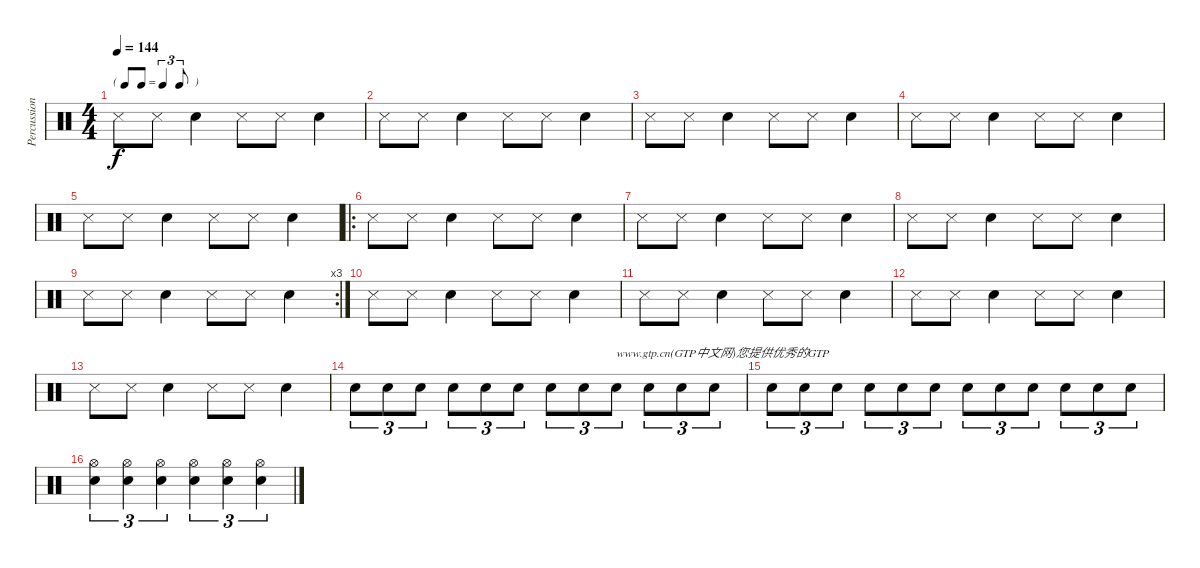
\track ("Percussions" "Percussion") {instrument percussion}
\staff {score}
\articulation defaults
\ts (4 4)
\tf triplet8th
\tempo 144
\clef neutral
\ks c "Snare (side stick) 3".8{dy f} "Snare (side stick) 3".8 "Snare (hit) 2".4 "Snare (side stick) 3".8 "Snare (side stick) 3".8 "Snare (hit) 2".4
|
"Snare (side stick) 3".8 "Snare (side stick) 3".8 "Snare (hit) 2".4 "Snare (side stick) 3".8 "Snare (side stick) 3".8 "Snare (hit) 2".4 |
"Snare (side stick) 3".8 "Snare (side stick) 3".8 "Snare (hit) 2".4 "Snare (side stick) 3".8 "Snare (side stick) 3".8 "Snare (hit) 2".4 |
"Snare (side stick) 3".8 "Snare (side stick) 3".8 "Snare (hit) 2".4 "Snare (side stick) 3".8 "Snare (side stick) 3".8 "Snare (hit) 2".4 |
"Snare (side stick) 3".8 "Snare (side stick) 3".8 "Snare (hit) 2".4 "Snare (side stick) 3".8 "Snare (side stick) 3".8 "Snare (hit) 2".4 |
\ro "Snare (side stick) 3".8 "Snare (side stick) 3".8 "Snare (hit) 2".4 "Snare (side stick) 3".8 "Snare (side stick) 3".8 "Snare (hit) 2".4
|
"Snare (side stick) 3".8 "Snare (side stick) 3".8 "Snare (hit) 2".4 "Snare (side stick) 3".8 "Snare (side stick) 3".8 "Snare (hit) 2".4 |
"Snare (side stick) 3".8 "Snare (side stick) 3".8 "Snare (hit) 2".4 "Snare (side stick) 3".8 "Snare (side stick) 3".8 "Snare (hit) 2".4 |
\rc 3 "Snare (side stick) 3".8 "Snare (side stick) 3".8 "Snare (hit) 2".4 "Snare (side stick) 3".8 "Snare (side stick) 3".8 "Snare (hit) 2".4
|
"Snare (side stick) 3".8 "Snare (side stick) 3".8 "Snare (hit) 2".4 "Snare (side stick) 3".8 "Snare (side stick) 3".8 "Snare (hit) 2".4 |
"Snare (side stick) 3".8 "Snare (side stick) 3".8 "Snare (hit) 2".4 "Snare (side stick) 3".8 "Snare (side stick) 3".8 "Snare (hit) 2".4 |
"Snare (side stick) 3".8 "Snare (side stick) 3".8 "Snare (hit) 2".4 "Snare (side stick) 3".8 "Snare (side stick) 3".8 "Snare (hit) 2".4 |
"Snare (side stick) 3".8 "Snare (side stick) 3".8 "Snare (hit) 2".4 "Snare (side stick) 3".8 "Snare (side stick) 3".8 "Snare (hit) 2".4 |
"Snare (hit) 2".8{tu (3 2)} "Snare (hit) 2".8{tu (3 2)} "Snare (hit) 2".8{tu (3 2)} "Snare (hit) 2".8{tu (3 2)} "Snare (hit) 2".8{tu (3 2)} "Snare (hit) 2".8{tu (3 2)} "Snare (hit) 2".8{tu (3 2)} "Snare (hit) 2".8{tu (3 2)} "Snare (hit) 2".8{tu (3 2) txt "www.gtp.cn(GTP中文网)您提供优秀的GTP"} "Snare (hit) 2".8{tu (3 2)} "Snare (hit) 2".8{tu (3 2)} "Snare (hit) 2".8{tu (3 2)} |
"Snare (hit) 2".8{tu (3 2)} "Snare (hit) 2".8{tu (3 2)} "Snare (hit) 2".8{tu (3 2)} "Snare (hit) 2".8{tu (3 2)} "Snare (hit) 2".8{tu (3 2)} "Snare (hit) 2".8{tu (3 2)} "Snare (hit) 2".8{tu (3 2)} "Snare (hit) 2".8{tu (3 2)} "Snare (hit) 2".8{tu (3 2)} "Snare (hit) 2".8{tu (3 2)} "Snare (hit) 2".8{tu (3 2)} "Snare (hit) 2".8{tu (3 2)} |
("Snare (hit) 2" "Hi-Hat (open)").4{tu (3 2)} ("Snare (hit) 2" "Hi-Hat (open)").4{tu (3 2)} ("Snare (hit) 2" "Hi-Hat (open)").4{tu (3 2)} ("Snare (hit) 2" "Hi-Hat (open)").4{tu (3 2)} ("Snare (hit) 2" "Hi-Hat (open)").4{tu (3 2)} ("Snare (hit) 2" "Hi-Hat (open)").4{tu (3 2)}
